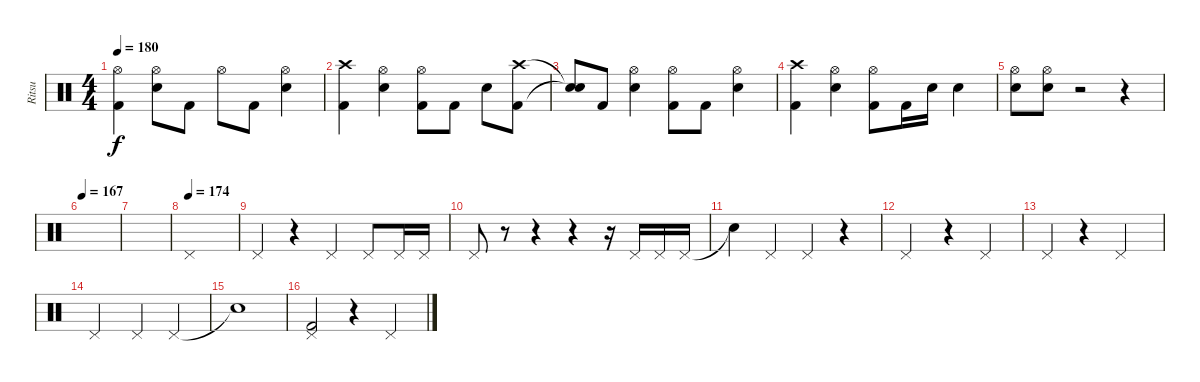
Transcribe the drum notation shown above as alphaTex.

\track ("Ritsu" "Ritsu") {instrument percussion}
\staff {score}
\articulation defaults
\ts (4 4)
\tempo 180
\clef neutral
\ks c
("Hi-Hat (open)" "Kick (hit) 2").4{dy f} ("Hi-Hat (open)" "Snare (hit) 2").8 "Kick (hit) 2".8 "Hi-Hat (open)".8 "Kick (hit) 2".8 ("Hi-Hat (open)" "Snare (hit) 2").4 |
("Crash high (hit)" "Kick (hit) 2").4 ("Hi-Hat (open)" "Snare (hit) 2").4 ("Hi-Hat (open)" "Kick (hit) 2").8 "Kick (hit) 2".8 "Snare (hit) 2".8 ("Crash high (hit)" "Kick (hit) 2").8 |
("Snare (hit)"{t} "Snare (hit)"{t}).8 "Kick (hit) 2".8 ("Hi-Hat (open)" "Snare (hit) 2").4 ("Hi-Hat (open)" "Kick (hit) 2").8 "Kick (hit) 2".8 ("Hi-Hat (open)" "Snare (hit) 2").4 |
("Crash high (hit)" "Kick (hit) 2").4 ("Hi-Hat (open)" "Snare (hit) 2").4 ("Hi-Hat (open)" "Kick (hit) 2").8 "Kick (hit) 2".16 "Snare (hit) 2".16 "Snare (hit) 2".4 |
("Hi-Hat (open)" "Snare (hit) 2").8 ("Hi-Hat (open)" "Snare (hit) 2").8 r.2 r.4 |
\tempo 167
|
|
\tempo (174)
"Pedal Hi-Hat (hit)".1 |
"Pedal Hi-Hat (hit)".4 r.4 "Pedal Hi-Hat (hit)".4 "Pedal Hi-Hat (hit)".8 "Pedal Hi-Hat (hit)".16 "Pedal Hi-Hat (hit)".16 |
"Pedal Hi-Hat (hit)".8 r.8 r.4 r.4 r.16 "Pedal Hi-Hat (hit)".16 "Pedal Hi-Hat (hit)".16 "Pedal Hi-Hat (hit)".16 |
"Snare (hit)"{t}.4 "Pedal Hi-Hat (hit)".4 "Pedal Hi-Hat (hit)".4 r.4 |
"Pedal Hi-Hat (hit)".2 r.4 "Pedal Hi-Hat (hit)".4 |
"Pedal Hi-Hat (hit)".4 r.4 "Pedal Hi-Hat (hit)".2 |
"Pedal Hi-Hat (hit)".2 "Pedal Hi-Hat (hit)".4 "Pedal Hi-Hat (hit)".4 |
"Snare (hit)"{t}.1 |
("Pedal Hi-Hat (hit)" "Kick (hit) 2").2 r.4 "Pedal Hi-Hat (hit)".4
